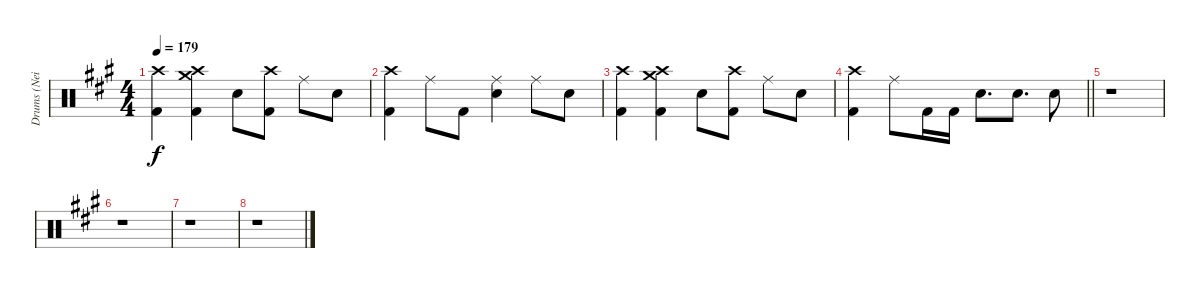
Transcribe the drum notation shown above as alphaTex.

\track ("Drums (Neil Sanderson)" "Drums (Nei") {instrument percussion}
\staff {score}
\articulation defaults
\ts (4 4)
\tempo 179
\clef neutral
\ks f#minor
("Crash high (hit)" "Kick (hit) 2").4{dy f} ("Crash medium (hit)" "Crash high (hit)" "Kick (hit) 2").4 "Electric Snare (hit)".8 ("Crash high (hit)" "Kick (hit) 2").8 "Ride (middle)".8 "Electric Snare (hit)".8 |
("Crash high (hit)" "Kick (hit) 2").4 "Ride (middle)".8 "Kick (hit) 2".8 ("Ride (middle)" "Electric Snare (hit)").4 "Ride (middle)".8 "Electric Snare (hit)".8 |
("Crash high (hit)" "Kick (hit) 2").4 ("Crash medium (hit)" "Crash high (hit)" "Kick (hit) 2").4 "Electric Snare (hit)".8 ("Crash high (hit)" "Kick (hit) 2").8 "Ride (middle)".8 "Electric Snare (hit)".8 |
\barLineRight lightlight
("Crash high (hit)" "Kick (hit) 2").4 "Ride (middle)".8 "Kick (hit) 2".16 "Kick (hit) 2".16 "Electric Snare (hit)".8{d} "Electric Snare (hit)".8{d} "Electric Snare (hit)".8 |
r.1 |
r.1 |
r.1 |
r.1
